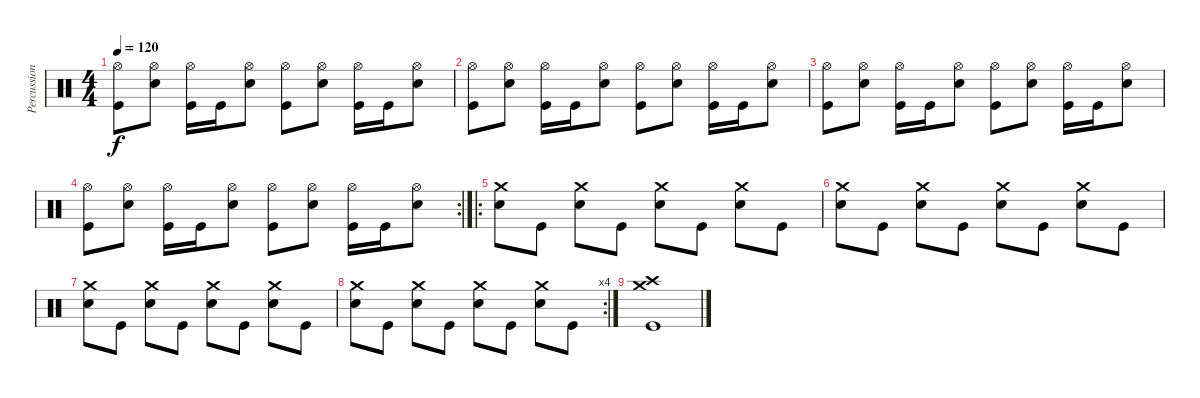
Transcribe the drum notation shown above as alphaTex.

\track ("Percussion" "Percussion") {instrument percussion}
\staff {score}
\articulation defaults
\ts (4 4)
\tempo 120
\clef neutral
\ks c
("Hi-Hat (open)" "Kick (hit)").8{dy f} ("Hi-Hat (open)" "Snare (hit) 2").8 ("Hi-Hat (open)" "Kick (hit)").16 "Kick (hit)".16 ("Hi-Hat (open)" "Snare (hit) 2").8 ("Hi-Hat (open)" "Kick (hit)").8 ("Hi-Hat (open)" "Snare (hit) 2").8 ("Hi-Hat (open)" "Kick (hit)").16 "Kick (hit)".16 ("Hi-Hat (open)" "Snare (hit) 2").8 |
("Hi-Hat (open)" "Kick (hit)").8 ("Hi-Hat (open)" "Snare (hit) 2").8 ("Hi-Hat (open)" "Kick (hit)").16 "Kick (hit)".16 ("Hi-Hat (open)" "Snare (hit) 2").8 ("Hi-Hat (open)" "Kick (hit)").8 ("Hi-Hat (open)" "Snare (hit) 2").8 ("Hi-Hat (open)" "Kick (hit)").16 "Kick (hit)".16 ("Hi-Hat (open)" "Snare (hit) 2").8 |
("Hi-Hat (open)" "Kick (hit)").8 ("Hi-Hat (open)" "Snare (hit) 2").8 ("Hi-Hat (open)" "Kick (hit)").16 "Kick (hit)".16 ("Hi-Hat (open)" "Snare (hit) 2").8 ("Hi-Hat (open)" "Kick (hit)").8 ("Hi-Hat (open)" "Snare (hit) 2").8 ("Hi-Hat (open)" "Kick (hit)").16 "Kick (hit)".16 ("Hi-Hat (open)" "Snare (hit) 2").8 |
\rc 2
("Hi-Hat (open)" "Kick (hit)").8 ("Hi-Hat (open)" "Snare (hit) 2").8 ("Hi-Hat (open)" "Kick (hit)").16 "Kick (hit)".16 ("Hi-Hat (open)" "Snare (hit) 2").8 ("Hi-Hat (open)" "Kick (hit)").8 ("Hi-Hat (open)" "Snare (hit) 2").8 ("Hi-Hat (open)" "Kick (hit)").16 "Kick (hit)".16 ("Hi-Hat (open)" "Snare (hit) 2").8 |
\ro
("Crash medium (hit)" "Snare (hit) 2").8 "Kick (hit)".8 ("Crash medium (hit)" "Snare (hit) 2").8 "Kick (hit)".8 ("Crash medium (hit)" "Snare (hit) 2").8 "Kick (hit)".8 ("Crash medium (hit)" "Snare (hit) 2").8 "Kick (hit)".8 |
("Crash medium (hit)" "Snare (hit) 2").8 "Kick (hit)".8 ("Crash medium (hit)" "Snare (hit) 2").8 "Kick (hit)".8 ("Crash medium (hit)" "Snare (hit) 2").8 "Kick (hit)".8 ("Crash medium (hit)" "Snare (hit) 2").8 "Kick (hit)".8 |
("Crash medium (hit)" "Snare (hit) 2").8 "Kick (hit)".8 ("Crash medium (hit)" "Snare (hit) 2").8 "Kick (hit)".8 ("Crash medium (hit)" "Snare (hit) 2").8 "Kick (hit)".8 ("Crash medium (hit)" "Snare (hit) 2").8 "Kick (hit)".8 |
\rc 4
("Crash medium (hit)" "Snare (hit) 2").8 "Kick (hit)".8 ("Crash medium (hit)" "Snare (hit) 2").8 "Kick (hit)".8 ("Crash medium (hit)" "Snare (hit) 2").8 "Kick (hit)".8 ("Crash medium (hit)" "Snare (hit) 2").8 "Kick (hit)".8 |
("Crash medium (hit)" "Crash high (hit)" "Kick (hit)").1
